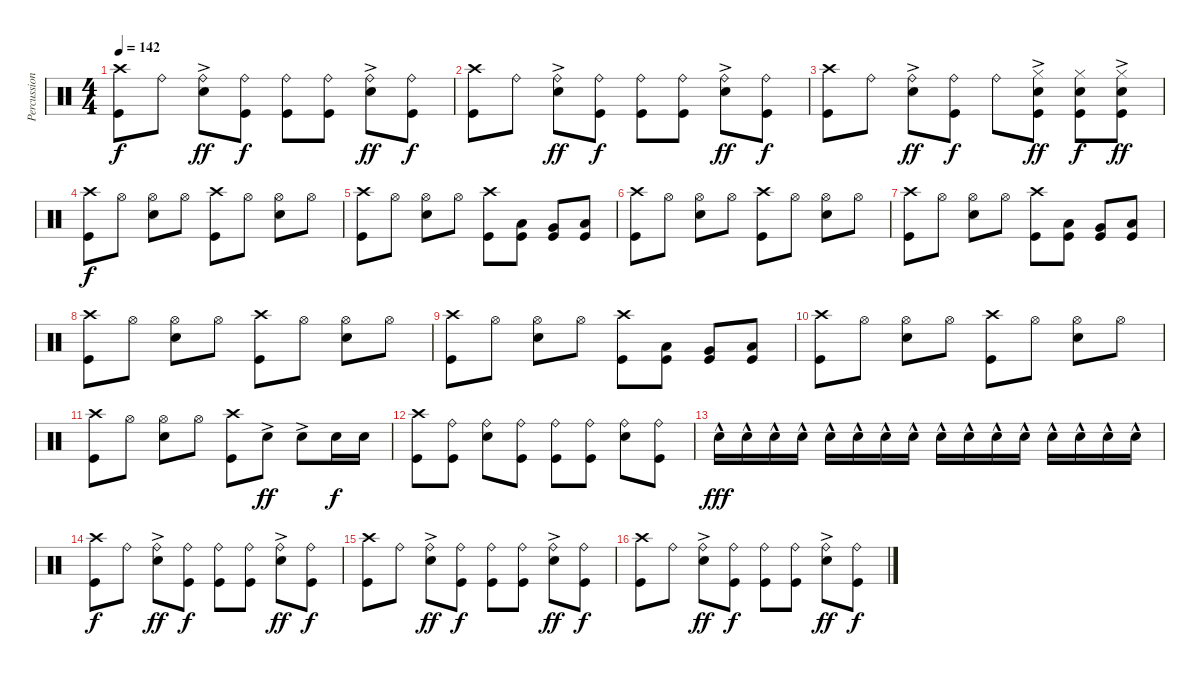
\track ("Percussion" "Percussion") {instrument percussion}
\staff {score}
\articulation defaults
\ts (4 4)
\tempo 142
\clef neutral
\ks c
("Crash high (hit)" "Kick (hit)").8{dy f} "Ride (bell)".8 ("Ride (bell)" "Electric Snare (hit)"{ac}).8{dy ff} ("Ride (bell)" "Kick (hit)").8{dy f} ("Ride (bell)" "Kick (hit)").8 ("Ride (bell)" "Kick (hit)").8 ("Ride (bell)" "Electric Snare (hit)"{ac}).8{dy ff} ("Ride (bell)" "Kick (hit)").8{dy f} |
("Crash high (hit)" "Kick (hit)").8 "Ride (bell)".8 ("Ride (bell)" "Electric Snare (hit)"{ac}).8{dy ff} ("Ride (bell)" "Kick (hit)").8{dy f} ("Ride (bell)" "Kick (hit)").8 ("Ride (bell)" "Kick (hit)").8 ("Ride (bell)" "Electric Snare (hit)"{ac}).8{dy ff} ("Ride (bell)" "Kick (hit)").8{dy f} |
("Crash high (hit)" "Kick (hit)").8 "Ride (bell)".8 ("Ride (bell)" "Electric Snare (hit)"{ac}).8{dy ff} ("Ride (bell)" "Kick (hit)").8{dy f} "Ride (bell)".8 ("Hi-Hat (closed)" "Electric Snare (hit)"{ac} "Kick (hit)").8{dy ff} ("Hi-Hat (closed)" "Electric Snare (hit)" "Kick (hit)").8{dy f} ("Hi-Hat (closed)" "Electric Snare (hit)"{ac} "Kick (hit)").8{dy ff} |
("Crash high (hit)" "Kick (hit)").8{dy f} "Hi-Hat (open)".8 ("Hi-Hat (open)" "Electric Snare (hit)").8 "Hi-Hat (open)".8 ("Crash high (hit)" "Kick (hit)").8 "Hi-Hat (open)".8 ("Hi-Hat (open)" "Electric Snare (hit)").8 "Hi-Hat (open)".8 |
("Crash high (hit)" "Kick (hit)").8 "Hi-Hat (open)".8 ("Hi-Hat (open)" "Electric Snare (hit)").8 "Hi-Hat (open)".8 ("Crash high (hit)" "Kick (hit)").8 ("Low Tom (hit)" "Kick (hit)").8 ("Very Low Tom (hit)" "Kick (hit)").8 ("Low Floor Tom (hit)" "Kick (hit)").8 |
("Crash high (hit)" "Kick (hit)").8 "Hi-Hat (open)".8 ("Hi-Hat (open)" "Electric Snare (hit)").8 "Hi-Hat (open)".8 ("Crash high (hit)" "Kick (hit)").8 "Hi-Hat (open)".8 ("Hi-Hat (open)" "Electric Snare (hit)").8 "Hi-Hat (open)".8 |
("Crash high (hit)" "Kick (hit)").8 "Hi-Hat (open)".8 ("Hi-Hat (open)" "Electric Snare (hit)").8 "Hi-Hat (open)".8 ("Crash high (hit)" "Kick (hit)").8 ("Low Tom (hit)" "Kick (hit)").8 ("Very Low Tom (hit)" "Kick (hit)").8 ("Low Floor Tom (hit)" "Kick (hit)").8 |
("Crash high (hit)" "Kick (hit)").8 "Hi-Hat (open)".8 ("Hi-Hat (open)" "Electric Snare (hit)").8 "Hi-Hat (open)".8 ("Crash high (hit)" "Kick (hit)").8 "Hi-Hat (open)".8 ("Hi-Hat (open)" "Electric Snare (hit)").8 "Hi-Hat (open)".8 |
("Crash high (hit)" "Kick (hit)").8 "Hi-Hat (open)".8 ("Hi-Hat (open)" "Electric Snare (hit)").8 "Hi-Hat (open)".8 ("Crash high (hit)" "Kick (hit)").8 ("Low Tom (hit)" "Kick (hit)").8 ("Very Low Tom (hit)" "Kick (hit)").8 ("Low Floor Tom (hit)" "Kick (hit)").8 |
("Crash high (hit)" "Kick (hit)").8 "Hi-Hat (open)".8 ("Hi-Hat (open)" "Electric Snare (hit)").8 "Hi-Hat (open)".8 ("Crash high (hit)" "Kick (hit)").8 "Hi-Hat (open)".8 ("Hi-Hat (open)" "Electric Snare (hit)").8 "Hi-Hat (open)".8 |
("Crash high (hit)" "Kick (hit)").8 "Hi-Hat (open)".8 ("Hi-Hat (open)" "Electric Snare (hit)").8 "Hi-Hat (open)".8 ("Crash high (hit)" "Kick (hit)").8 "Electric Snare (hit)"{ac}.8{dy ff} "Electric Snare (hit)"{ac}.8 "Electric Snare (hit)".16{dy f} "Electric Snare (hit)".16 |
("Crash high (hit)" "Kick (hit)").8 ("Ride (bell)" "Kick (hit)").8 ("Ride (bell)" "Electric Snare (hit)").8 ("Ride (bell)" "Kick (hit)").8 ("Ride (bell)" "Kick (hit)").8 ("Ride (bell)" "Kick (hit)").8 ("Ride (bell)" "Electric Snare (hit)").8 ("Ride (bell)" "Kick (hit)").8 |
"Electric Snare (hit)"{hac}.16{dy fff} "Electric Snare (hit)"{hac}.16 "Electric Snare (hit)"{hac}.16 "Electric Snare (hit)"{hac}.16 "Electric Snare (hit)"{hac}.16 "Electric Snare (hit)"{hac}.16 "Electric Snare (hit)"{hac}.16 "Electric Snare (hit)"{hac}.16 "Electric Snare (hit)"{hac}.16 "Electric Snare (hit)"{hac}.16 "Electric Snare (hit)"{hac}.16 "Electric Snare (hit)"{hac}.16 "Electric Snare (hit)"{hac}.16 "Electric Snare (hit)"{hac}.16 "Electric Snare (hit)"{hac}.16 "Electric Snare (hit)"{hac}.16 |
("Crash high (hit)" "Kick (hit)").8{dy f} "Ride (bell)".8 ("Ride (bell)" "Electric Snare (hit)"{ac}).8{dy ff} ("Ride (bell)" "Kick (hit)").8{dy f} ("Ride (bell)" "Kick (hit)").8 ("Ride (bell)" "Kick (hit)").8 ("Ride (bell)" "Electric Snare (hit)"{ac}).8{dy ff} ("Ride (bell)" "Kick (hit)").8{dy f} |
("Crash high (hit)" "Kick (hit)").8 "Ride (bell)".8 ("Ride (bell)" "Electric Snare (hit)"{ac}).8{dy ff} ("Ride (bell)" "Kick (hit)").8{dy f} ("Ride (bell)" "Kick (hit)").8 ("Ride (bell)" "Kick (hit)").8 ("Ride (bell)" "Electric Snare (hit)"{ac}).8{dy ff} ("Ride (bell)" "Kick (hit)").8{dy f} |
("Crash high (hit)" "Kick (hit)").8 "Ride (bell)".8 ("Ride (bell)" "Electric Snare (hit)"{ac}).8{dy ff} ("Ride (bell)" "Kick (hit)").8{dy f} ("Ride (bell)" "Kick (hit)").8 ("Ride (bell)" "Kick (hit)").8 ("Ride (bell)" "Electric Snare (hit)"{ac}).8{dy ff} ("Ride (bell)" "Kick (hit)").8{dy f}
